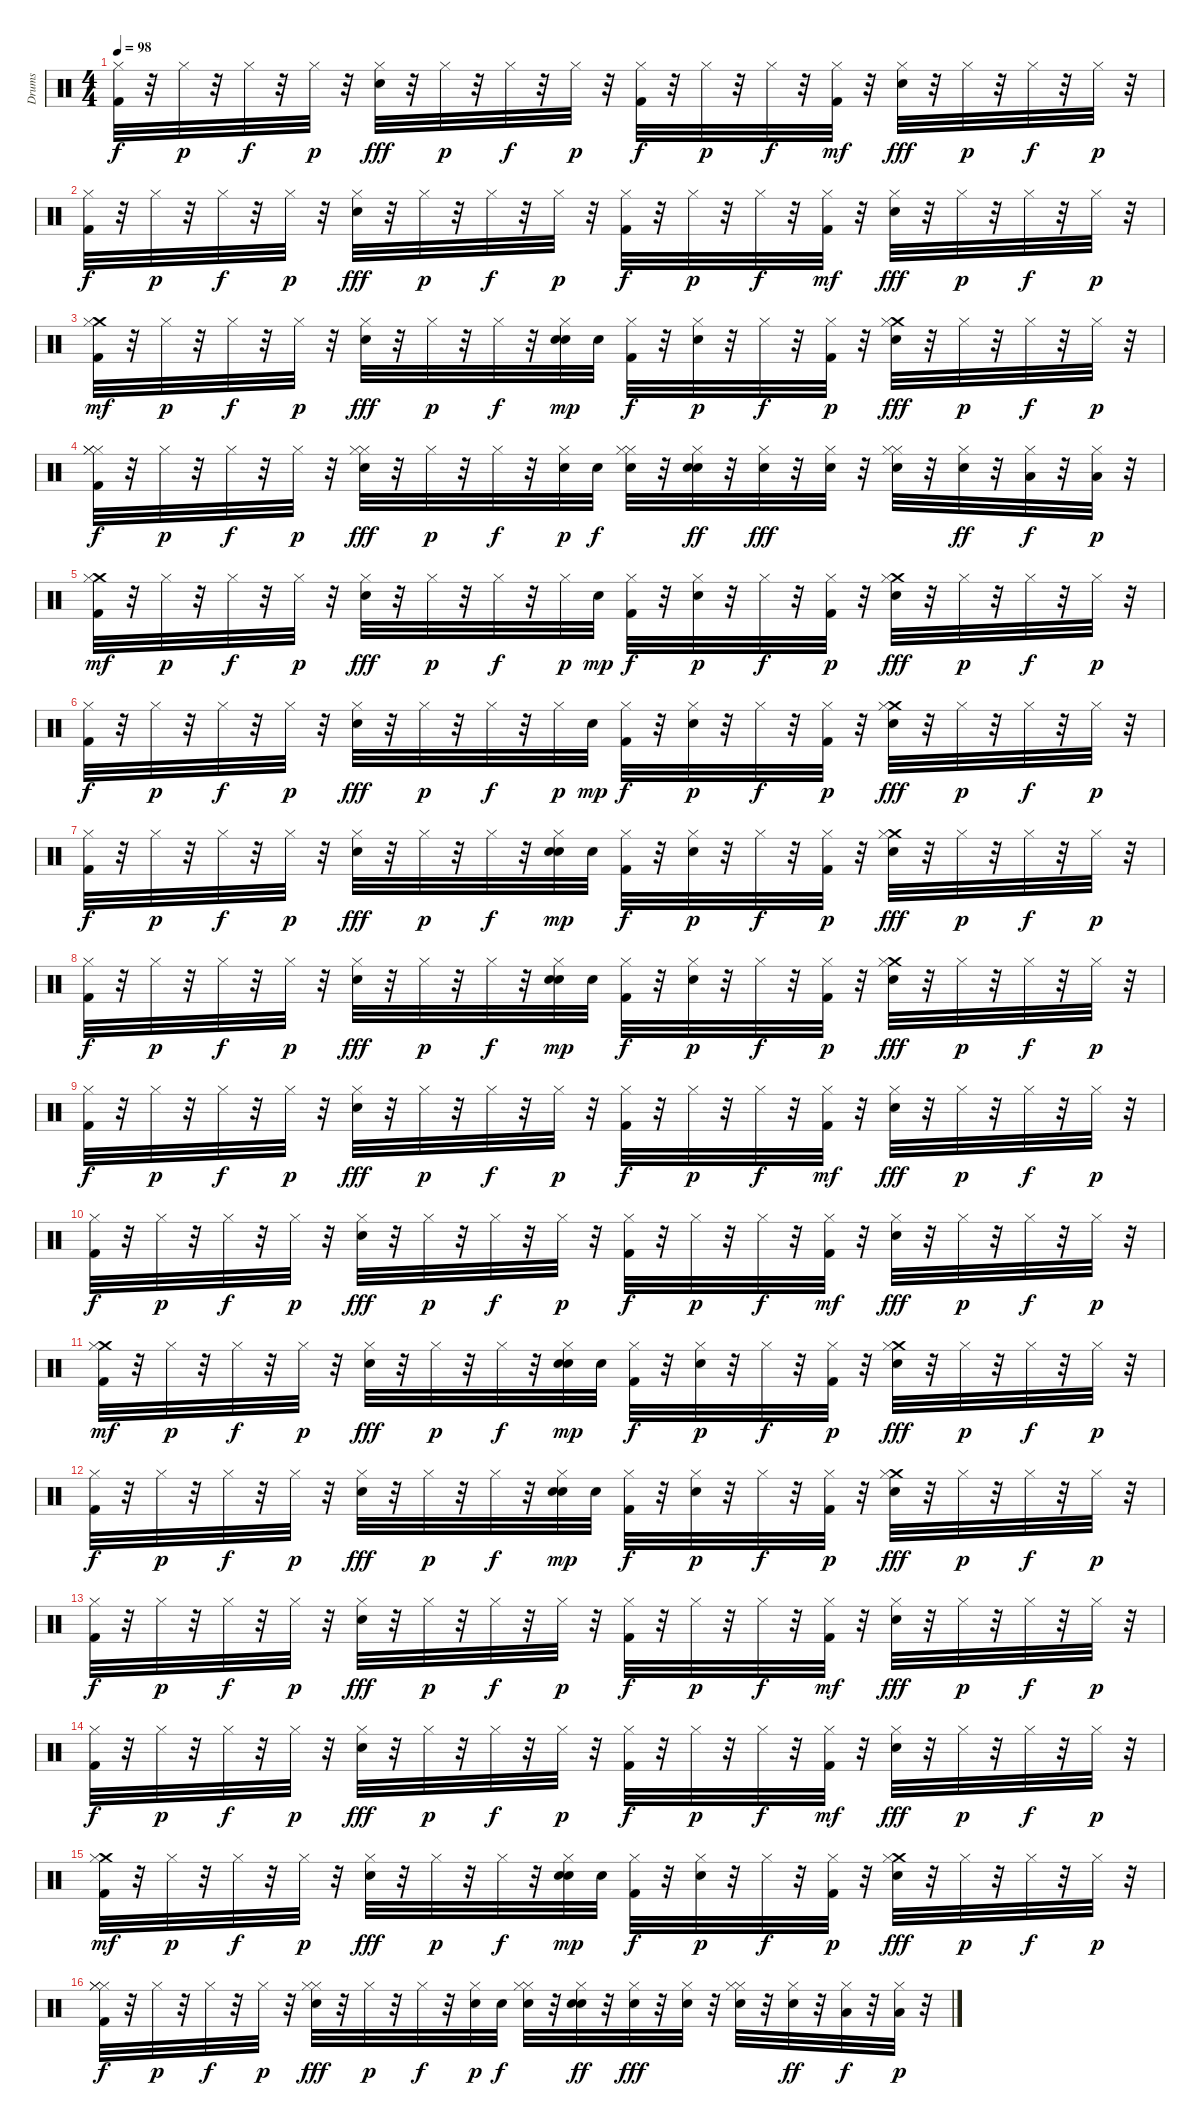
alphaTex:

\track ("Drums" "Drums") {instrument percussion}
\staff {score}
\articulation defaults
\ts (4 4)
\tempo 98
\clef neutral
\ks c
("Hi-Hat (closed)" "Kick (hit) 2").32{dy f} r.32 "Hi-Hat (closed)".32{dy p} r.32 "Hi-Hat (closed)".32{dy f} r.32 "Hi-Hat (closed)".32{dy p} r.32 ("Hi-Hat (closed)" "Electric Snare (hit)").32{dy fff} r.32 "Hi-Hat (closed)".32{dy p} r.32 "Hi-Hat (closed)".32{dy f} r.32 "Hi-Hat (closed)".32{dy p} r.32 ("Hi-Hat (closed)" "Kick (hit) 2").32{dy f} r.32 "Hi-Hat (closed)".32{dy p} r.32 "Hi-Hat (closed)".32{dy f} r.32 ("Hi-Hat (closed)" "Kick (hit) 2").32{dy mf} r.32 ("Hi-Hat (closed)" "Electric Snare (hit)").32{dy fff} r.32 "Hi-Hat (closed)".32{dy p} r.32 "Hi-Hat (closed)".32{dy f} r.32 "Hi-Hat (closed)".32{dy p} r.32 |
("Hi-Hat (closed)" "Kick (hit) 2").32{dy f} r.32 "Hi-Hat (closed)".32{dy p} r.32 "Hi-Hat (closed)".32{dy f} r.32 "Hi-Hat (closed)".32{dy p} r.32 ("Hi-Hat (closed)" "Electric Snare (hit)").32{dy fff} r.32 "Hi-Hat (closed)".32{dy p} r.32 "Hi-Hat (closed)".32{dy f} r.32 "Hi-Hat (closed)".32{dy p} r.32 ("Hi-Hat (closed)" "Kick (hit) 2").32{dy f} r.32 "Hi-Hat (closed)".32{dy p} r.32 "Hi-Hat (closed)".32{dy f} r.32 ("Hi-Hat (closed)" "Kick (hit) 2").32{dy mf} r.32 ("Hi-Hat (closed)" "Electric Snare (hit)").32{dy fff} r.32 "Hi-Hat (closed)".32{dy p} r.32 "Hi-Hat (closed)".32{dy f} r.32 "Hi-Hat (closed)".32{dy p} r.32 |
("Crash medium (hit)" "Hi-Hat (closed)" "Kick (hit) 2").32{dy mf} r.32 "Hi-Hat (closed)".32{dy p} r.32 "Hi-Hat (closed)".32{dy f} r.32 "Hi-Hat (closed)".32{dy p} r.32 ("Hi-Hat (closed)" "Electric Snare (hit)").32{dy fff} r.32 "Hi-Hat (closed)".32{dy p} r.32 "Hi-Hat (closed)".32{dy f} r.32 ("Hi-Hat (closed)" "Electric Snare (hit)" "Electric Snare (hit)").32{dy mp} "Electric Snare (hit)".32 ("Hi-Hat (closed)" "Kick (hit) 2").32{dy f} r.32 ("Hi-Hat (closed)" "Electric Snare (hit)").32{dy p} r.32 "Hi-Hat (closed)".32{dy f} r.32 ("Hi-Hat (closed)" "Kick (hit) 2").32{dy p} r.32 ("Crash medium (hit)" "Hi-Hat (closed)" "Electric Snare (hit)").32{dy fff} r.32 "Hi-Hat (closed)".32{dy p} r.32 "Hi-Hat (closed)".32{dy f} r.32 "Hi-Hat (closed)".32{dy p} r.32 |
("Hi-Hat (closed)" "Hi-Hat (closed)" "Hi-Hat (closed)" "Kick (hit) 2").32{dy f} r.32 "Hi-Hat (closed)".32{dy p} r.32 "Hi-Hat (closed)".32{dy f} r.32 "Hi-Hat (closed)".32{dy p} r.32 ("Hi-Hat (closed)" "Hi-Hat (closed)" "Electric Snare (hit)").32{dy fff} r.32 "Hi-Hat (closed)".32{dy p} r.32 "Hi-Hat (closed)".32{dy f} r.32 ("Hi-Hat (closed)" "Snare (hit) 2").32{dy p} "Snare (hit) 2".32{dy f} ("Hi-Hat (closed)" "Hi-Hat (closed)" "Electric Snare (hit)").32 r.32 ("Hi-Hat (closed)" "Electric Snare (hit)" "Electric Snare (hit)").32{dy ff} r.32 ("Hi-Hat (closed)" "Electric Snare (hit)").32{dy fff} r.32 ("Hi-Hat (closed)" "Electric Snare (hit)").32 r.32 ("Hi-Hat (closed)" "Hi-Hat (closed)" "Snare (hit) 2").32 r.32 ("Hi-Hat (closed)" "Snare (hit) 2").32{dy ff} r.32 ("Hi-Hat (closed)" "Low Tom (hit)").32{dy f} r.32 ("Hi-Hat (closed)" "Low Tom (hit)").32{dy p} r.32 |
("Crash medium (hit)" "Hi-Hat (closed)" "Kick (hit) 2").32{dy mf} r.32 "Hi-Hat (closed)".32{dy p} r.32 "Hi-Hat (closed)".32{dy f} r.32 "Hi-Hat (closed)".32{dy p} r.32 ("Hi-Hat (closed)" "Electric Snare (hit)").32{dy fff} r.32 "Hi-Hat (closed)".32{dy p} r.32 "Hi-Hat (closed)".32{dy f} r.32 "Hi-Hat (closed)".32{dy p} "Electric Snare (hit)".32{dy mp} ("Hi-Hat (closed)" "Kick (hit) 2").32{dy f} r.32 ("Hi-Hat (closed)" "Electric Snare (hit)").32{dy p} r.32 "Hi-Hat (closed)".32{dy f} r.32 ("Hi-Hat (closed)" "Kick (hit) 2").32{dy p} r.32 ("Crash medium (hit)" "Hi-Hat (closed)" "Electric Snare (hit)").32{dy fff} r.32 "Hi-Hat (closed)".32{dy p} r.32 "Hi-Hat (closed)".32{dy f} r.32 "Hi-Hat (closed)".32{dy p} r.32 |
("Hi-Hat (closed)" "Kick (hit) 2").32{dy f} r.32 "Hi-Hat (closed)".32{dy p} r.32 "Hi-Hat (closed)".32{dy f} r.32 "Hi-Hat (closed)".32{dy p} r.32 ("Hi-Hat (closed)" "Electric Snare (hit)").32{dy fff} r.32 "Hi-Hat (closed)".32{dy p} r.32 "Hi-Hat (closed)".32{dy f} r.32 "Hi-Hat (closed)".32{dy p} "Electric Snare (hit)".32{dy mp} ("Hi-Hat (closed)" "Kick (hit) 2").32{dy f} r.32 ("Hi-Hat (closed)" "Electric Snare (hit)").32{dy p} r.32 "Hi-Hat (closed)".32{dy f} r.32 ("Hi-Hat (closed)" "Kick (hit) 2").32{dy p} r.32 ("Crash medium (hit)" "Hi-Hat (closed)" "Electric Snare (hit)").32{dy fff} r.32 "Hi-Hat (closed)".32{dy p} r.32 "Hi-Hat (closed)".32{dy f} r.32 "Hi-Hat (closed)".32{dy p} r.32 |
("Hi-Hat (closed)" "Kick (hit) 2").32{dy f} r.32 "Hi-Hat (closed)".32{dy p} r.32 "Hi-Hat (closed)".32{dy f} r.32 "Hi-Hat (closed)".32{dy p} r.32 ("Hi-Hat (closed)" "Electric Snare (hit)").32{dy fff} r.32 "Hi-Hat (closed)".32{dy p} r.32 "Hi-Hat (closed)".32{dy f} r.32 ("Hi-Hat (closed)" "Electric Snare (hit)" "Electric Snare (hit)").32{dy mp} "Electric Snare (hit)".32 ("Hi-Hat (closed)" "Kick (hit) 2").32{dy f} r.32 ("Hi-Hat (closed)" "Electric Snare (hit)").32{dy p} r.32 "Hi-Hat (closed)".32{dy f} r.32 ("Hi-Hat (closed)" "Kick (hit) 2").32{dy p} r.32 ("Crash medium (hit)" "Hi-Hat (closed)" "Electric Snare (hit)").32{dy fff} r.32 "Hi-Hat (closed)".32{dy p} r.32 "Hi-Hat (closed)".32{dy f} r.32 "Hi-Hat (closed)".32{dy p} r.32 |
("Hi-Hat (closed)" "Kick (hit) 2").32{dy f} r.32 "Hi-Hat (closed)".32{dy p} r.32 "Hi-Hat (closed)".32{dy f} r.32 "Hi-Hat (closed)".32{dy p} r.32 ("Hi-Hat (closed)" "Electric Snare (hit)").32{dy fff} r.32 "Hi-Hat (closed)".32{dy p} r.32 "Hi-Hat (closed)".32{dy f} r.32 ("Hi-Hat (closed)" "Electric Snare (hit)" "Electric Snare (hit)").32{dy mp} "Electric Snare (hit)".32 ("Hi-Hat (closed)" "Kick (hit) 2").32{dy f} r.32 ("Hi-Hat (closed)" "Electric Snare (hit)").32{dy p} r.32 "Hi-Hat (closed)".32{dy f} r.32 ("Hi-Hat (closed)" "Kick (hit) 2").32{dy p} r.32 ("Crash medium (hit)" "Hi-Hat (closed)" "Electric Snare (hit)").32{dy fff} r.32 "Hi-Hat (closed)".32{dy p} r.32 "Hi-Hat (closed)".32{dy f} r.32 "Hi-Hat (closed)".32{dy p} r.32 |
("Hi-Hat (closed)" "Kick (hit) 2").32{dy f} r.32 "Hi-Hat (closed)".32{dy p} r.32 "Hi-Hat (closed)".32{dy f} r.32 "Hi-Hat (closed)".32{dy p} r.32 ("Hi-Hat (closed)" "Electric Snare (hit)").32{dy fff} r.32 "Hi-Hat (closed)".32{dy p} r.32 "Hi-Hat (closed)".32{dy f} r.32 "Hi-Hat (closed)".32{dy p} r.32 ("Hi-Hat (closed)" "Kick (hit) 2").32{dy f} r.32 "Hi-Hat (closed)".32{dy p} r.32 "Hi-Hat (closed)".32{dy f} r.32 ("Hi-Hat (closed)" "Kick (hit) 2").32{dy mf} r.32 ("Hi-Hat (closed)" "Electric Snare (hit)").32{dy fff} r.32 "Hi-Hat (closed)".32{dy p} r.32 "Hi-Hat (closed)".32{dy f} r.32 "Hi-Hat (closed)".32{dy p} r.32 |
("Hi-Hat (closed)" "Kick (hit) 2").32{dy f} r.32 "Hi-Hat (closed)".32{dy p} r.32 "Hi-Hat (closed)".32{dy f} r.32 "Hi-Hat (closed)".32{dy p} r.32 ("Hi-Hat (closed)" "Electric Snare (hit)").32{dy fff} r.32 "Hi-Hat (closed)".32{dy p} r.32 "Hi-Hat (closed)".32{dy f} r.32 "Hi-Hat (closed)".32{dy p} r.32 ("Hi-Hat (closed)" "Kick (hit) 2").32{dy f} r.32 "Hi-Hat (closed)".32{dy p} r.32 "Hi-Hat (closed)".32{dy f} r.32 ("Hi-Hat (closed)" "Kick (hit) 2").32{dy mf} r.32 ("Hi-Hat (closed)" "Electric Snare (hit)").32{dy fff} r.32 "Hi-Hat (closed)".32{dy p} r.32 "Hi-Hat (closed)".32{dy f} r.32 "Hi-Hat (closed)".32{dy p} r.32 |
("Crash medium (hit)" "Hi-Hat (closed)" "Kick (hit) 2").32{dy mf} r.32 "Hi-Hat (closed)".32{dy p} r.32 "Hi-Hat (closed)".32{dy f} r.32 "Hi-Hat (closed)".32{dy p} r.32 ("Hi-Hat (closed)" "Electric Snare (hit)").32{dy fff} r.32 "Hi-Hat (closed)".32{dy p} r.32 "Hi-Hat (closed)".32{dy f} r.32 ("Hi-Hat (closed)" "Electric Snare (hit)" "Electric Snare (hit)").32{dy mp} "Electric Snare (hit)".32 ("Hi-Hat (closed)" "Kick (hit) 2").32{dy f} r.32 ("Hi-Hat (closed)" "Electric Snare (hit)").32{dy p} r.32 "Hi-Hat (closed)".32{dy f} r.32 ("Hi-Hat (closed)" "Kick (hit) 2").32{dy p} r.32 ("Crash medium (hit)" "Hi-Hat (closed)" "Electric Snare (hit)").32{dy fff} r.32 "Hi-Hat (closed)".32{dy p} r.32 "Hi-Hat (closed)".32{dy f} r.32 "Hi-Hat (closed)".32{dy p} r.32 |
("Hi-Hat (closed)" "Kick (hit) 2").32{dy f} r.32 "Hi-Hat (closed)".32{dy p} r.32 "Hi-Hat (closed)".32{dy f} r.32 "Hi-Hat (closed)".32{dy p} r.32 ("Hi-Hat (closed)" "Electric Snare (hit)").32{dy fff} r.32 "Hi-Hat (closed)".32{dy p} r.32 "Hi-Hat (closed)".32{dy f} r.32 ("Hi-Hat (closed)" "Electric Snare (hit)" "Electric Snare (hit)").32{dy mp} "Electric Snare (hit)".32 ("Hi-Hat (closed)" "Kick (hit) 2").32{dy f} r.32 ("Hi-Hat (closed)" "Electric Snare (hit)").32{dy p} r.32 "Hi-Hat (closed)".32{dy f} r.32 ("Hi-Hat (closed)" "Kick (hit) 2").32{dy p} r.32 ("Crash medium (hit)" "Hi-Hat (closed)" "Electric Snare (hit)").32{dy fff} r.32 "Hi-Hat (closed)".32{dy p} r.32 "Hi-Hat (closed)".32{dy f} r.32 "Hi-Hat (closed)".32{dy p} r.32 |
("Hi-Hat (closed)" "Kick (hit) 2").32{dy f} r.32 "Hi-Hat (closed)".32{dy p} r.32 "Hi-Hat (closed)".32{dy f} r.32 "Hi-Hat (closed)".32{dy p} r.32 ("Hi-Hat (closed)" "Electric Snare (hit)").32{dy fff} r.32 "Hi-Hat (closed)".32{dy p} r.32 "Hi-Hat (closed)".32{dy f} r.32 "Hi-Hat (closed)".32{dy p} r.32 ("Hi-Hat (closed)" "Kick (hit) 2").32{dy f} r.32 "Hi-Hat (closed)".32{dy p} r.32 "Hi-Hat (closed)".32{dy f} r.32 ("Hi-Hat (closed)" "Kick (hit) 2").32{dy mf} r.32 ("Hi-Hat (closed)" "Electric Snare (hit)").32{dy fff} r.32 "Hi-Hat (closed)".32{dy p} r.32 "Hi-Hat (closed)".32{dy f} r.32 "Hi-Hat (closed)".32{dy p} r.32 |
("Hi-Hat (closed)" "Kick (hit) 2").32{dy f} r.32 "Hi-Hat (closed)".32{dy p} r.32 "Hi-Hat (closed)".32{dy f} r.32 "Hi-Hat (closed)".32{dy p} r.32 ("Hi-Hat (closed)" "Electric Snare (hit)").32{dy fff} r.32 "Hi-Hat (closed)".32{dy p} r.32 "Hi-Hat (closed)".32{dy f} r.32 "Hi-Hat (closed)".32{dy p} r.32 ("Hi-Hat (closed)" "Kick (hit) 2").32{dy f} r.32 "Hi-Hat (closed)".32{dy p} r.32 "Hi-Hat (closed)".32{dy f} r.32 ("Hi-Hat (closed)" "Kick (hit) 2").32{dy mf} r.32 ("Hi-Hat (closed)" "Electric Snare (hit)").32{dy fff} r.32 "Hi-Hat (closed)".32{dy p} r.32 "Hi-Hat (closed)".32{dy f} r.32 "Hi-Hat (closed)".32{dy p} r.32 |
("Crash medium (hit)" "Hi-Hat (closed)" "Kick (hit) 2").32{dy mf} r.32 "Hi-Hat (closed)".32{dy p} r.32 "Hi-Hat (closed)".32{dy f} r.32 "Hi-Hat (closed)".32{dy p} r.32 ("Hi-Hat (closed)" "Electric Snare (hit)").32{dy fff} r.32 "Hi-Hat (closed)".32{dy p} r.32 "Hi-Hat (closed)".32{dy f} r.32 ("Hi-Hat (closed)" "Electric Snare (hit)" "Electric Snare (hit)").32{dy mp} "Electric Snare (hit)".32 ("Hi-Hat (closed)" "Kick (hit) 2").32{dy f} r.32 ("Hi-Hat (closed)" "Electric Snare (hit)").32{dy p} r.32 "Hi-Hat (closed)".32{dy f} r.32 ("Hi-Hat (closed)" "Kick (hit) 2").32{dy p} r.32 ("Crash medium (hit)" "Hi-Hat (closed)" "Electric Snare (hit)").32{dy fff} r.32 "Hi-Hat (closed)".32{dy p} r.32 "Hi-Hat (closed)".32{dy f} r.32 "Hi-Hat (closed)".32{dy p} r.32 |
("Hi-Hat (closed)" "Hi-Hat (closed)" "Hi-Hat (closed)" "Kick (hit) 2").32{dy f} r.32 "Hi-Hat (closed)".32{dy p} r.32 "Hi-Hat (closed)".32{dy f} r.32 "Hi-Hat (closed)".32{dy p} r.32 ("Hi-Hat (closed)" "Hi-Hat (closed)" "Electric Snare (hit)").32{dy fff} r.32 "Hi-Hat (closed)".32{dy p} r.32 "Hi-Hat (closed)".32{dy f} r.32 ("Hi-Hat (closed)" "Snare (hit) 2").32{dy p} "Snare (hit) 2".32{dy f} ("Hi-Hat (closed)" "Hi-Hat (closed)" "Electric Snare (hit)").32 r.32 ("Hi-Hat (closed)" "Electric Snare (hit)" "Electric Snare (hit)").32{dy ff} r.32 ("Hi-Hat (closed)" "Electric Snare (hit)").32{dy fff} r.32 ("Hi-Hat (closed)" "Electric Snare (hit)").32 r.32 ("Hi-Hat (closed)" "Hi-Hat (closed)" "Snare (hit) 2").32 r.32 ("Hi-Hat (closed)" "Snare (hit) 2").32{dy ff} r.32 ("Hi-Hat (closed)" "Low Tom (hit)").32{dy f} r.32 ("Hi-Hat (closed)" "Low Tom (hit)").32{dy p} r.32
